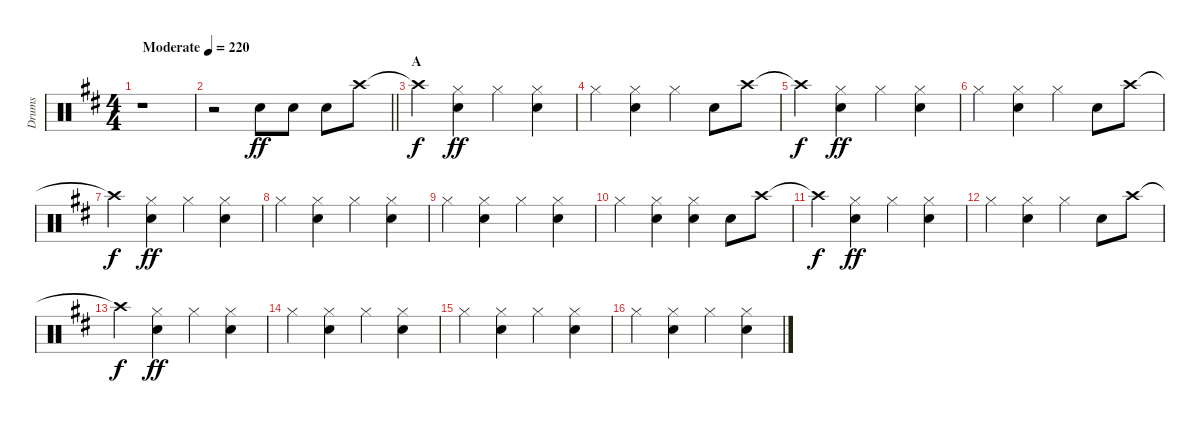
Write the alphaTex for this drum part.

\track ("Drums" "Drums") {instrument percussion}
\staff {score}
\articulation defaults
\ts (4 4)
\tempo (220 "Moderate")
\clef neutral
\ks d
r.1{dy ff} |
\barLineRight lightlight
r.2 "Snare (hit) 2".8 "Snare (hit) 2".8 "Snare (hit) 2".8 "Crash high (hit)".8 |
\section ("" "A")
"Crash high (hit)"{t}.4{dy f} ("Hi-Hat (closed)" "Snare (hit) 2").4{dy ff} "Hi-Hat (closed)".4 ("Hi-Hat (closed)" "Snare (hit) 2").4 |
"Hi-Hat (closed)".4 ("Hi-Hat (closed)" "Snare (hit) 2").4 "Hi-Hat (closed)".4 "Snare (hit) 2".8 "Crash high (hit)".8 |
"Crash high (hit)"{t}.4{dy f} ("Hi-Hat (closed)" "Snare (hit) 2").4{dy ff} "Hi-Hat (closed)".4 ("Hi-Hat (closed)" "Snare (hit) 2").4 |
"Hi-Hat (closed)".4 ("Hi-Hat (closed)" "Snare (hit) 2").4 "Hi-Hat (closed)".4 "Snare (hit) 2".8 "Crash high (hit)".8 |
"Crash high (hit)"{t}.4{dy f} ("Hi-Hat (closed)" "Snare (hit) 2").4{dy ff} "Hi-Hat (closed)".4 ("Hi-Hat (closed)" "Snare (hit) 2").4 |
"Hi-Hat (closed)".4 ("Hi-Hat (closed)" "Snare (hit) 2").4 "Hi-Hat (closed)".4 ("Hi-Hat (closed)" "Snare (hit) 2").4 |
"Hi-Hat (closed)".4 ("Hi-Hat (closed)" "Snare (hit) 2").4 "Hi-Hat (closed)".4 ("Hi-Hat (closed)" "Snare (hit) 2").4 |
"Hi-Hat (closed)".4 ("Hi-Hat (closed)" "Snare (hit) 2").4 ("Hi-Hat (closed)" "Snare (hit) 2").4 "Snare (hit) 2".8 "Crash high (hit)".8 |
"Crash high (hit)"{t}.4{dy f} ("Hi-Hat (closed)" "Snare (hit) 2").4{dy ff} "Hi-Hat (closed)".4 ("Hi-Hat (closed)" "Snare (hit) 2").4 |
"Hi-Hat (closed)".4 ("Hi-Hat (closed)" "Snare (hit) 2").4 "Hi-Hat (closed)".4 "Snare (hit) 2".8 "Crash high (hit)".8 |
"Crash high (hit)"{t}.4{dy f} ("Hi-Hat (closed)" "Snare (hit) 2").4{dy ff} "Hi-Hat (closed)".4 ("Hi-Hat (closed)" "Snare (hit) 2").4 |
"Hi-Hat (closed)".4 ("Hi-Hat (closed)" "Snare (hit) 2").4 "Hi-Hat (closed)".4 ("Hi-Hat (closed)" "Snare (hit) 2").4 |
"Hi-Hat (closed)".4 ("Hi-Hat (closed)" "Snare (hit) 2").4 "Hi-Hat (closed)".4 ("Hi-Hat (closed)" "Snare (hit) 2").4 |
"Hi-Hat (closed)".4 ("Hi-Hat (closed)" "Snare (hit) 2").4 "Hi-Hat (closed)".4 ("Hi-Hat (closed)" "Snare (hit) 2").4
